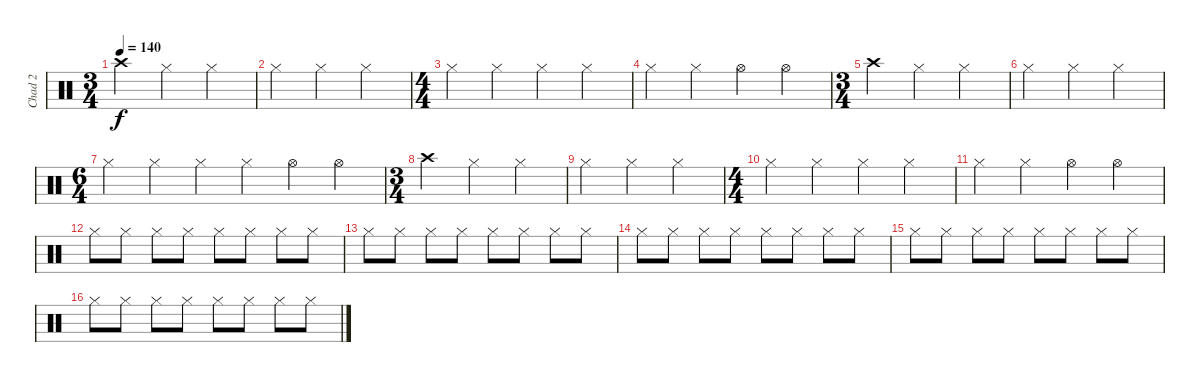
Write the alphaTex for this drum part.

\track ("Chad 2" "Chad 2") {instrument percussion}
\staff {score}
\articulation defaults
\ts (3 4)
\tempo 140
\clef neutral
\ks c "Crash high (hit)".4{dy f} "Hi-Hat (closed)".4 "Hi-Hat (closed)".4
|
"Hi-Hat (closed)".4 "Hi-Hat (closed)".4 "Hi-Hat (closed)".4 |
\ts (4 4)
"Hi-Hat (closed)".4 "Hi-Hat (closed)".4 "Hi-Hat (closed)".4 "Hi-Hat (closed)".4 |
"Hi-Hat (closed)".4 "Hi-Hat (closed)".4 "Hi-Hat (open)".4 "Hi-Hat (open)".4 |
\ts (3 4)
"Crash high (hit)".4 "Hi-Hat (closed)".4 "Hi-Hat (closed)".4 |
"Hi-Hat (closed)".4 "Hi-Hat (closed)".4 "Hi-Hat (closed)".4 |
\ts (6 4)
"Hi-Hat (closed)".4 "Hi-Hat (closed)".4 "Hi-Hat (closed)".4 "Hi-Hat (closed)".4 "Hi-Hat (open)".4 "Hi-Hat (open)".4 |
\ts (3 4)
"Crash high (hit)".4 "Hi-Hat (closed)".4 "Hi-Hat (closed)".4 |
"Hi-Hat (closed)".4 "Hi-Hat (closed)".4 "Hi-Hat (closed)".4 |
\ts (4 4)
"Hi-Hat (closed)".4 "Hi-Hat (closed)".4 "Hi-Hat (closed)".4 "Hi-Hat (closed)".4 |
"Hi-Hat (closed)".4 "Hi-Hat (closed)".4 "Hi-Hat (open)".4 "Hi-Hat (open)".4 |
"Hi-Hat (closed)".8 "Hi-Hat (closed)".8 "Hi-Hat (closed)".8 "Hi-Hat (closed)".8 "Hi-Hat (closed)".8 "Hi-Hat (closed)".8 "Hi-Hat (closed)".8 "Hi-Hat (closed)".8 |
"Hi-Hat (closed)".8 "Hi-Hat (closed)".8 "Hi-Hat (closed)".8 "Hi-Hat (closed)".8 "Hi-Hat (closed)".8 "Hi-Hat (closed)".8 "Hi-Hat (closed)".8 "Hi-Hat (closed)".8 |
"Hi-Hat (closed)".8 "Hi-Hat (closed)".8 "Hi-Hat (closed)".8 "Hi-Hat (closed)".8 "Hi-Hat (closed)".8 "Hi-Hat (closed)".8 "Hi-Hat (closed)".8 "Hi-Hat (closed)".8 |
"Hi-Hat (closed)".8 "Hi-Hat (closed)".8 "Hi-Hat (closed)".8 "Hi-Hat (closed)".8 "Hi-Hat (closed)".8 "Hi-Hat (closed)".8 "Hi-Hat (closed)".8 "Hi-Hat (closed)".8 |
"Hi-Hat (closed)".8 "Hi-Hat (closed)".8 "Hi-Hat (closed)".8 "Hi-Hat (closed)".8 "Hi-Hat (closed)".8 "Hi-Hat (closed)".8 "Hi-Hat (closed)".8 "Hi-Hat (closed)".8
